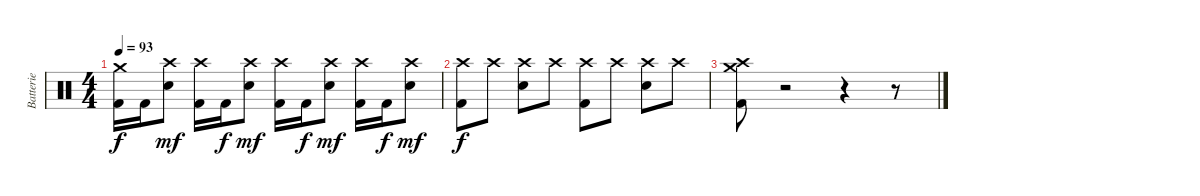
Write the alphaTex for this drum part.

\track ("Batterie" "Batterie") {instrument percussion}
\staff {score}
\articulation defaults
\ts (4 4)
\tempo 93
\clef neutral
\ks c
("Crash medium (hit)" "Kick (hit) 2").16{dy f} "Kick (hit) 2".16 ("Crash high (hit)" "Snare (hit) 2").8{dy mf} ("Crash high (hit)" "Kick (hit) 2").16 "Kick (hit) 2".16{dy f} ("Crash high (hit)" "Snare (hit) 2").8{dy mf} ("Crash high (hit)" "Kick (hit) 2").16 "Kick (hit) 2".16{dy f} ("Crash high (hit)" "Snare (hit) 2").8{dy mf} ("Crash high (hit)" "Kick (hit) 2").16 "Kick (hit) 2".16{dy f} ("Crash high (hit)" "Snare (hit) 2").8{dy mf} |
("Crash high (hit)" "Kick (hit) 2").8{dy f} "Crash high (hit)".8 ("Crash high (hit)" "Snare (hit) 2").8 "Crash high (hit)".8 ("Crash high (hit)" "Kick (hit) 2").8 "Crash high (hit)".8 ("Crash high (hit)" "Snare (hit) 2").8 "Crash high (hit)".8 |
("Crash high (hit)" "Crash medium (hit)" "Kick (hit) 2").8 r.2 r.4 r.8
